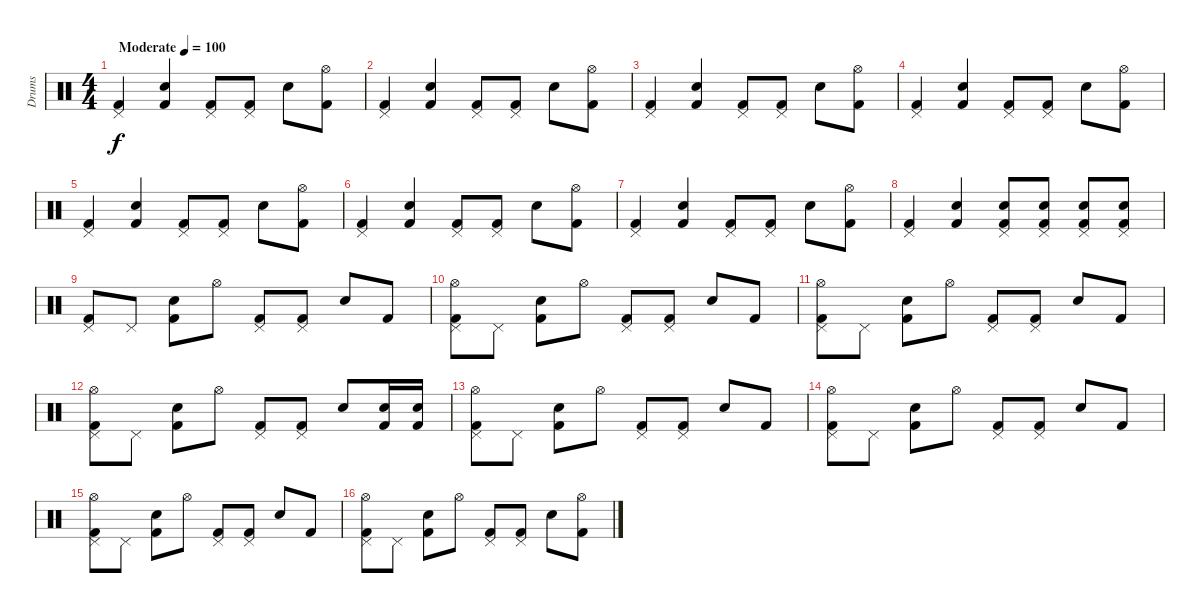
\track ("Drums" "Drums") {instrument percussion}
\staff {score}
\articulation defaults
\ts (4 4)
\tempo (100 "Moderate")
\clef neutral
\ks c
("Kick (hit) 2" "Pedal Hi-Hat (hit)").4{dy f} ("Kick (hit) 2" "Electric Snare (hit)").4 ("Kick (hit) 2" "Pedal Hi-Hat (hit)").8 ("Kick (hit) 2" "Pedal Hi-Hat (hit)").8 "Electric Snare (hit)".8 ("Kick (hit) 2" "Hi-Hat (open)").8 |
("Kick (hit) 2" "Pedal Hi-Hat (hit)").4 ("Kick (hit) 2" "Electric Snare (hit)").4 ("Kick (hit) 2" "Pedal Hi-Hat (hit)").8 ("Kick (hit) 2" "Pedal Hi-Hat (hit)").8 "Electric Snare (hit)".8 ("Kick (hit) 2" "Hi-Hat (open)").8 |
("Kick (hit) 2" "Pedal Hi-Hat (hit)").4 ("Kick (hit) 2" "Electric Snare (hit)").4 ("Kick (hit) 2" "Pedal Hi-Hat (hit)").8 ("Kick (hit) 2" "Pedal Hi-Hat (hit)").8 "Electric Snare (hit)".8 ("Kick (hit) 2" "Hi-Hat (open)").8 |
("Kick (hit) 2" "Pedal Hi-Hat (hit)").4 ("Kick (hit) 2" "Electric Snare (hit)").4 ("Kick (hit) 2" "Pedal Hi-Hat (hit)").8 ("Kick (hit) 2" "Pedal Hi-Hat (hit)").8 "Electric Snare (hit)".8 ("Kick (hit) 2" "Hi-Hat (open)").8 |
("Kick (hit) 2" "Pedal Hi-Hat (hit)").4 ("Kick (hit) 2" "Electric Snare (hit)").4 ("Kick (hit) 2" "Pedal Hi-Hat (hit)").8 ("Kick (hit) 2" "Pedal Hi-Hat (hit)").8 "Electric Snare (hit)".8 ("Kick (hit) 2" "Hi-Hat (open)").8 |
("Kick (hit) 2" "Pedal Hi-Hat (hit)").4 ("Kick (hit) 2" "Electric Snare (hit)").4 ("Kick (hit) 2" "Pedal Hi-Hat (hit)").8 ("Kick (hit) 2" "Pedal Hi-Hat (hit)").8 "Electric Snare (hit)".8 ("Kick (hit) 2" "Hi-Hat (open)").8 |
("Kick (hit) 2" "Pedal Hi-Hat (hit)").4 ("Kick (hit) 2" "Electric Snare (hit)").4 ("Kick (hit) 2" "Pedal Hi-Hat (hit)").8 ("Kick (hit) 2" "Pedal Hi-Hat (hit)").8 "Electric Snare (hit)".8 ("Kick (hit) 2" "Hi-Hat (open)").8 |
("Kick (hit) 2" "Pedal Hi-Hat (hit)").4 ("Kick (hit) 2" "Electric Snare (hit)").4 ("Kick (hit) 2" "Pedal Hi-Hat (hit)" "Electric Snare (hit)").8 ("Kick (hit) 2" "Pedal Hi-Hat (hit)" "Electric Snare (hit)").8 ("Kick (hit) 2" "Pedal Hi-Hat (hit)" "Electric Snare (hit)").8 ("Kick (hit) 2" "Pedal Hi-Hat (hit)" "Electric Snare (hit)").8 |
("Kick (hit) 2" "Pedal Hi-Hat (hit)").8 "Pedal Hi-Hat (hit)".8 ("Kick (hit) 2" "Electric Snare (hit)").8 "Hi-Hat (open)".8 ("Kick (hit) 2" "Pedal Hi-Hat (hit)").8 ("Kick (hit) 2" "Pedal Hi-Hat (hit)").8 "Electric Snare (hit)".8 "Kick (hit) 2".8 |
("Kick (hit) 2" "Pedal Hi-Hat (hit)" "Hi-Hat (open)").8 "Pedal Hi-Hat (hit)".8 ("Kick (hit) 2" "Electric Snare (hit)").8 "Hi-Hat (open)".8 ("Kick (hit) 2" "Pedal Hi-Hat (hit)").8 ("Kick (hit) 2" "Pedal Hi-Hat (hit)").8 "Electric Snare (hit)".8 "Kick (hit) 2".8 |
("Kick (hit) 2" "Pedal Hi-Hat (hit)" "Hi-Hat (open)").8 "Pedal Hi-Hat (hit)".8 ("Kick (hit) 2" "Electric Snare (hit)").8 "Hi-Hat (open)".8 ("Kick (hit) 2" "Pedal Hi-Hat (hit)").8 ("Kick (hit) 2" "Pedal Hi-Hat (hit)").8 "Electric Snare (hit)".8 "Kick (hit) 2".8 |
("Kick (hit) 2" "Pedal Hi-Hat (hit)" "Hi-Hat (open)").8 "Pedal Hi-Hat (hit)".8 ("Kick (hit) 2" "Electric Snare (hit)").8 "Hi-Hat (open)".8 ("Kick (hit) 2" "Pedal Hi-Hat (hit)").8 ("Kick (hit) 2" "Pedal Hi-Hat (hit)").8 "Electric Snare (hit)".8 ("Kick (hit) 2" "Electric Snare (hit)").16 ("Kick (hit) 2" "Electric Snare (hit)").16 |
("Kick (hit) 2" "Pedal Hi-Hat (hit)" "Hi-Hat (open)").8 "Pedal Hi-Hat (hit)".8 ("Kick (hit) 2" "Electric Snare (hit)").8 "Hi-Hat (open)".8 ("Kick (hit) 2" "Pedal Hi-Hat (hit)").8 ("Kick (hit) 2" "Pedal Hi-Hat (hit)").8 "Electric Snare (hit)".8 "Kick (hit) 2".8 |
("Kick (hit) 2" "Pedal Hi-Hat (hit)" "Hi-Hat (open)").8 "Pedal Hi-Hat (hit)".8 ("Kick (hit) 2" "Electric Snare (hit)").8 "Hi-Hat (open)".8 ("Kick (hit) 2" "Pedal Hi-Hat (hit)").8 ("Kick (hit) 2" "Pedal Hi-Hat (hit)").8 "Electric Snare (hit)".8 "Kick (hit) 2".8 |
("Kick (hit) 2" "Pedal Hi-Hat (hit)" "Hi-Hat (open)").8 "Pedal Hi-Hat (hit)".8 ("Kick (hit) 2" "Electric Snare (hit)").8 "Hi-Hat (open)".8 ("Kick (hit) 2" "Pedal Hi-Hat (hit)").8 ("Kick (hit) 2" "Pedal Hi-Hat (hit)").8 "Electric Snare (hit)".8 "Kick (hit) 2".8 |
("Kick (hit) 2" "Pedal Hi-Hat (hit)" "Hi-Hat (open)").8 "Pedal Hi-Hat (hit)".8 ("Kick (hit) 2" "Electric Snare (hit)").8 "Hi-Hat (open)".8 ("Kick (hit) 2" "Pedal Hi-Hat (hit)").8 ("Kick (hit) 2" "Pedal Hi-Hat (hit)").8 "Electric Snare (hit)".8 ("Kick (hit) 2" "Hi-Hat (open)").8
